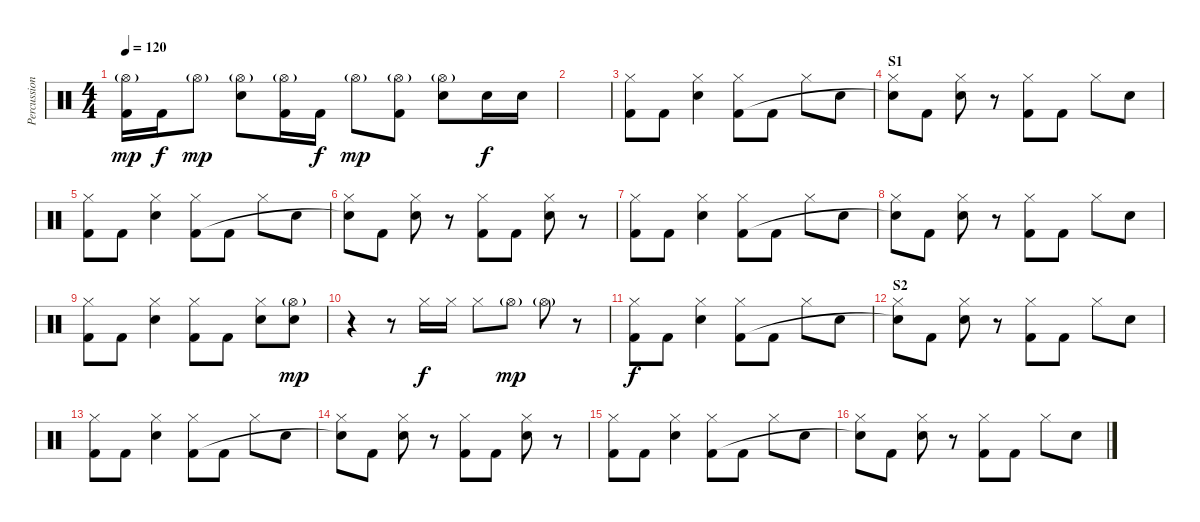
\track ("Percussion" "Percussion") {instrument percussion}
\staff {score}
\articulation defaults
\ts (4 4)
\tempo 120
\clef neutral
\ks c
("Hi-Hat (open)"{g} "Kick (hit) 2").16{dy mp} "Kick (hit) 2".16{dy f} "Hi-Hat (open)"{g}.8{dy mp} ("Hi-Hat (open)"{g} "Snare (hit) 2").8 ("Hi-Hat (open)"{g} "Kick (hit) 2").16 "Kick (hit) 2".16{dy f} "Hi-Hat (open)"{g}.8{dy mp} ("Hi-Hat (open)"{g} "Kick (hit) 2").8 ("Hi-Hat (open)"{g} "Snare (hit) 2").8 "Snare (hit) 2".16{dy f} "Snare (hit) 2".16 |
|
("Hi-Hat (closed)" "Kick (hit) 2").8 "Kick (hit) 2".8 ("Hi-Hat (closed)" "Snare (hit) 2").4 ("Hi-Hat (closed)" "Kick (hit) 2").8 "Kick (hit) 2".8 "Hi-Hat (closed)".8 "Snare (hit) 2".8 |
\section ("" "S1")
("Hi-Hat (closed)" "Snare (hit)"{t}).8 "Kick (hit) 2".8 ("Hi-Hat (closed)" "Snare (hit) 2").8 r.8 ("Hi-Hat (closed)" "Kick (hit) 2").8 "Kick (hit) 2".8 "Hi-Hat (closed)".8 "Snare (hit) 2".8 |
("Hi-Hat (closed)" "Kick (hit) 2").8 "Kick (hit) 2".8 ("Hi-Hat (closed)" "Snare (hit) 2").4 ("Hi-Hat (closed)" "Kick (hit) 2").8 "Kick (hit) 2".8 "Hi-Hat (closed)".8 "Snare (hit) 2".8 |
("Hi-Hat (closed)" "Snare (hit)"{t}).8 "Kick (hit) 2".8 ("Hi-Hat (closed)" "Snare (hit) 2").8 r.8 ("Hi-Hat (closed)" "Kick (hit) 2").8 "Kick (hit) 2".8 ("Hi-Hat (closed)" "Snare (hit) 2").8 r.8 |
("Hi-Hat (closed)" "Kick (hit) 2").8 "Kick (hit) 2".8 ("Hi-Hat (closed)" "Snare (hit) 2").4 ("Hi-Hat (closed)" "Kick (hit) 2").8 "Kick (hit) 2".8 "Hi-Hat (closed)".8 "Snare (hit) 2".8 |
("Hi-Hat (closed)" "Snare (hit)"{t}).8 "Kick (hit) 2".8 ("Hi-Hat (closed)" "Snare (hit) 2").8 r.8 ("Hi-Hat (closed)" "Kick (hit) 2").8 "Kick (hit) 2".8 "Hi-Hat (closed)".8 "Snare (hit) 2".8 |
("Hi-Hat (closed)" "Kick (hit) 2").8 "Kick (hit) 2".8 ("Hi-Hat (closed)" "Snare (hit) 2").4 ("Hi-Hat (closed)" "Kick (hit) 2").8 "Kick (hit) 2".8 ("Hi-Hat (closed)" "Snare (hit) 2").8 ("Hi-Hat (open)"{g} "Snare (hit) 2").8{dy mp} |
r.4 r.8 "Hi-Hat (closed)".16{dy f} "Hi-Hat (closed)".16 "Hi-Hat (closed)".8 "Hi-Hat (open)"{g}.8{dy mp} "Hi-Hat (open)"{g}.8 r.8 |
("Hi-Hat (closed)" "Kick (hit) 2").8{dy f} "Kick (hit) 2".8 ("Hi-Hat (closed)" "Snare (hit) 2").4 ("Hi-Hat (closed)" "Kick (hit) 2").8 "Kick (hit) 2".8 "Hi-Hat (closed)".8 "Snare (hit) 2".8 |
\section ("" "S2")
("Hi-Hat (closed)" "Snare (hit)"{t}).8 "Kick (hit) 2".8 ("Hi-Hat (closed)" "Snare (hit) 2").8 r.8 ("Hi-Hat (closed)" "Kick (hit) 2").8 "Kick (hit) 2".8 "Hi-Hat (closed)".8 "Snare (hit) 2".8 |
("Hi-Hat (closed)" "Kick (hit) 2").8 "Kick (hit) 2".8 ("Hi-Hat (closed)" "Snare (hit) 2").4 ("Hi-Hat (closed)" "Kick (hit) 2").8 "Kick (hit) 2".8 "Hi-Hat (closed)".8 "Snare (hit) 2".8 |
("Hi-Hat (closed)" "Snare (hit)"{t}).8 "Kick (hit) 2".8 ("Hi-Hat (closed)" "Snare (hit) 2").8 r.8 ("Hi-Hat (closed)" "Kick (hit) 2").8 "Kick (hit) 2".8 ("Hi-Hat (closed)" "Snare (hit) 2").8 r.8 |
("Hi-Hat (closed)" "Kick (hit) 2").8 "Kick (hit) 2".8 ("Hi-Hat (closed)" "Snare (hit) 2").4 ("Hi-Hat (closed)" "Kick (hit) 2").8 "Kick (hit) 2".8 "Hi-Hat (closed)".8 "Snare (hit) 2".8 |
("Hi-Hat (closed)" "Snare (hit)"{t}).8 "Kick (hit) 2".8 ("Hi-Hat (closed)" "Snare (hit) 2").8 r.8 ("Hi-Hat (closed)" "Kick (hit) 2").8 "Kick (hit) 2".8 "Hi-Hat (closed)".8 "Snare (hit) 2".8
